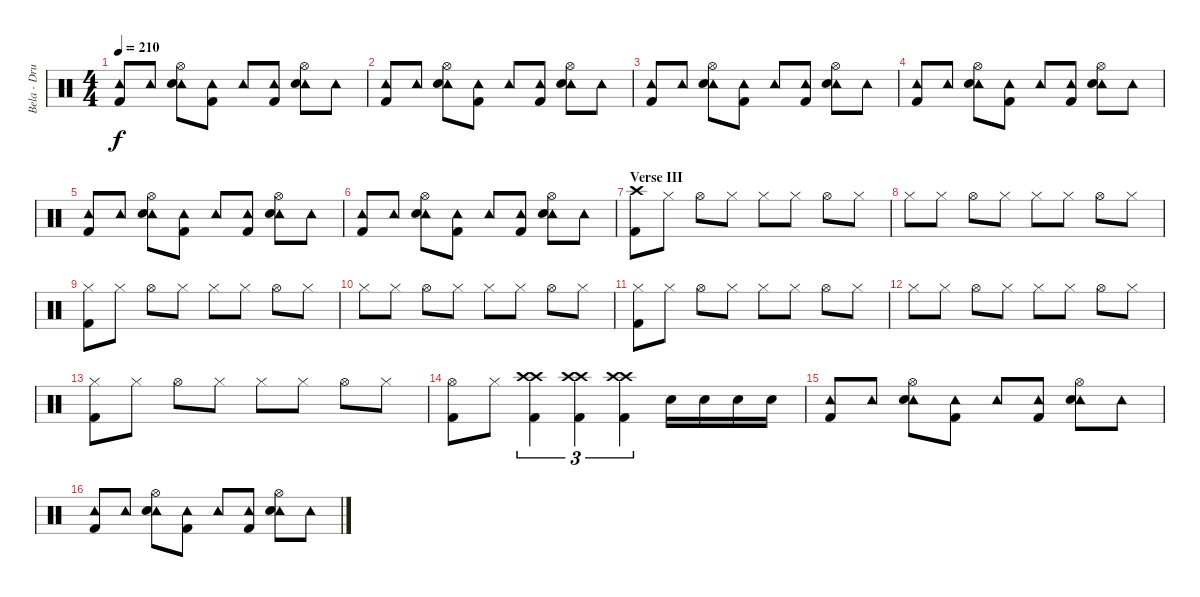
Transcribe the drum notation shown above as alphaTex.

\track ("Bela - Drums" "Bela - Dru") {instrument percussion}
\staff {score}
\articulation defaults
\ts (4 4)
\tempo 210
\clef neutral
\ks c
("Tambourine (hit)" "Kick (hit) 2").8{dy f} "Tambourine (hit)".8 ("Tambourine (hit)" "Electric Snare (hit)" "Hi-Hat (open)").8 ("Tambourine (hit)" "Kick (hit) 2").8 "Tambourine (hit)".8 ("Tambourine (hit)" "Kick (hit) 2").8 ("Tambourine (hit)" "Electric Snare (hit)" "Hi-Hat (open)").8 "Tambourine (hit)".8 |
("Tambourine (hit)" "Kick (hit) 2").8 "Tambourine (hit)".8 ("Tambourine (hit)" "Electric Snare (hit)" "Hi-Hat (open)").8 ("Tambourine (hit)" "Kick (hit) 2").8 "Tambourine (hit)".8 ("Tambourine (hit)" "Kick (hit) 2").8 ("Tambourine (hit)" "Electric Snare (hit)" "Hi-Hat (open)").8 "Tambourine (hit)".8 |
("Tambourine (hit)" "Kick (hit) 2").8 "Tambourine (hit)".8 ("Tambourine (hit)" "Electric Snare (hit)" "Hi-Hat (open)").8 ("Tambourine (hit)" "Kick (hit) 2").8 "Tambourine (hit)".8 ("Tambourine (hit)" "Kick (hit) 2").8 ("Tambourine (hit)" "Electric Snare (hit)" "Hi-Hat (open)").8 "Tambourine (hit)".8 |
("Tambourine (hit)" "Kick (hit) 2").8 "Tambourine (hit)".8 ("Tambourine (hit)" "Electric Snare (hit)" "Hi-Hat (open)").8 ("Tambourine (hit)" "Kick (hit) 2").8 "Tambourine (hit)".8 ("Tambourine (hit)" "Kick (hit) 2").8 ("Tambourine (hit)" "Electric Snare (hit)" "Hi-Hat (open)").8 "Tambourine (hit)".8 |
("Tambourine (hit)" "Kick (hit) 2").8 "Tambourine (hit)".8 ("Tambourine (hit)" "Electric Snare (hit)" "Hi-Hat (open)").8 ("Tambourine (hit)" "Kick (hit) 2").8 "Tambourine (hit)".8 ("Tambourine (hit)" "Kick (hit) 2").8 ("Tambourine (hit)" "Electric Snare (hit)" "Hi-Hat (open)").8 "Tambourine (hit)".8 |
("Tambourine (hit)" "Kick (hit) 2").8 "Tambourine (hit)".8 ("Tambourine (hit)" "Electric Snare (hit)" "Hi-Hat (open)").8 ("Tambourine (hit)" "Kick (hit) 2").8 "Tambourine (hit)".8 ("Tambourine (hit)" "Kick (hit) 2").8 ("Tambourine (hit)" "Electric Snare (hit)" "Hi-Hat (open)").8 "Tambourine (hit)".8 |
\section ("" "Verse III")
("Crash high (hit)" "Kick (hit) 2").8 "Hi-Hat (closed)".8 "Hi-Hat (open)".8 "Hi-Hat (closed)".8 "Hi-Hat (closed)".8 "Hi-Hat (closed)".8 "Hi-Hat (open)".8 "Hi-Hat (closed)".8 |
"Hi-Hat (closed)".8 "Hi-Hat (closed)".8 "Hi-Hat (open)".8 "Hi-Hat (closed)".8 "Hi-Hat (closed)".8 "Hi-Hat (closed)".8 "Hi-Hat (open)".8 "Hi-Hat (closed)".8 |
("Hi-Hat (closed)" "Kick (hit) 2").8 "Hi-Hat (closed)".8 "Hi-Hat (open)".8 "Hi-Hat (closed)".8 "Hi-Hat (closed)".8 "Hi-Hat (closed)".8 "Hi-Hat (open)".8 "Hi-Hat (closed)".8 |
"Hi-Hat (closed)".8 "Hi-Hat (closed)".8 "Hi-Hat (open)".8 "Hi-Hat (closed)".8 "Hi-Hat (closed)".8 "Hi-Hat (closed)".8 "Hi-Hat (open)".8 "Hi-Hat (closed)".8 |
("Hi-Hat (closed)" "Kick (hit) 2").8 "Hi-Hat (closed)".8 "Hi-Hat (open)".8 "Hi-Hat (closed)".8 "Hi-Hat (closed)".8 "Hi-Hat (closed)".8 "Hi-Hat (open)".8 "Hi-Hat (closed)".8 |
"Hi-Hat (closed)".8 "Hi-Hat (closed)".8 "Hi-Hat (open)".8 "Hi-Hat (closed)".8 "Hi-Hat (closed)".8 "Hi-Hat (closed)".8 "Hi-Hat (open)".8 "Hi-Hat (closed)".8 |
("Hi-Hat (closed)" "Kick (hit) 2").8 "Hi-Hat (closed)".8 "Hi-Hat (open)".8 "Hi-Hat (closed)".8 "Hi-Hat (closed)".8 "Hi-Hat (closed)".8 "Hi-Hat (open)".8 "Hi-Hat (closed)".8 |
("Hi-Hat (open)" "Kick (hit) 2").8 "Hi-Hat (closed)".8 ("Crash high (hit)" "Crash high (hit)" "Kick (hit) 2").4{tu (3 2) volume 16} ("Crash high (hit)" "Crash high (hit)" "Kick (hit) 2").4{tu (3 2)} ("Crash high (hit)" "Crash high (hit)" "Kick (hit) 2").4{tu (3 2)} "Electric Snare (hit)".16 "Electric Snare (hit)".16 "Electric Snare (hit)".16 "Electric Snare (hit)".16 |
("Tambourine (hit)" "Kick (hit) 2").8 "Tambourine (hit)".8 ("Tambourine (hit)" "Electric Snare (hit)" "Hi-Hat (open)").8 ("Tambourine (hit)" "Kick (hit) 2").8 "Tambourine (hit)".8 ("Tambourine (hit)" "Kick (hit) 2").8 ("Tambourine (hit)" "Electric Snare (hit)" "Hi-Hat (open)").8 "Tambourine (hit)".8 |
("Tambourine (hit)" "Kick (hit) 2").8 "Tambourine (hit)".8 ("Tambourine (hit)" "Electric Snare (hit)" "Hi-Hat (open)").8 ("Tambourine (hit)" "Kick (hit) 2").8 "Tambourine (hit)".8 ("Tambourine (hit)" "Kick (hit) 2").8 ("Tambourine (hit)" "Electric Snare (hit)" "Hi-Hat (open)").8 "Tambourine (hit)".8
